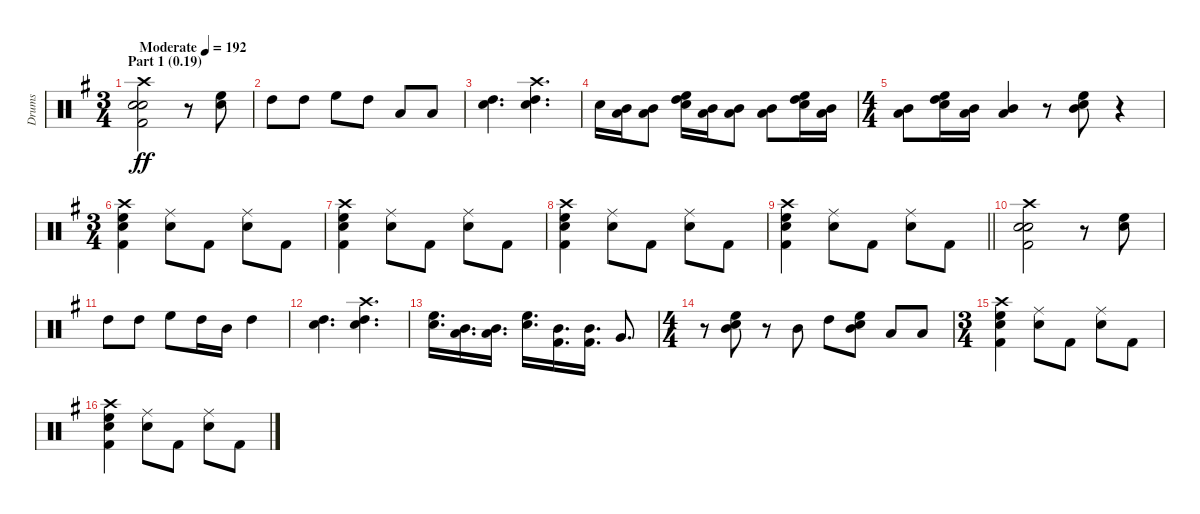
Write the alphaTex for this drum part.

\track ("Drums" "Drums") {instrument percussion}
\staff {score}
\articulation defaults
\ts (3 4)
\section ("" "Part 1 (0.19)")
\tempo (192 "Moderate")
\clef neutral
\ks g
("Kick (hit) 2" "Snare (hit) 2" "Electric Snare (hit)" "Crash high (hit)").2{dy ff} r.8 ("High Floor Tom (hit)" "Electric Snare (hit)").8 |
"High Tom (hit)".8 "High Tom (hit)".8 "High Floor Tom (hit)".8 "High Tom (hit)".8 "Low Tom (hit)".8 "Low Tom (hit)".8 |
("Electric Snare (hit)" "High Tom (hit)").4{d} ("Electric Snare (hit)" "High Tom (hit)" "Crash high (hit)").4{d} |
"Electric Snare (hit)".16 ("Mid Tom (hit)" "Low Tom (hit)").16 ("Mid Tom (hit)" "Low Tom (hit)").8 ("High Floor Tom (hit)" "High Tom (hit)" "Electric Snare (hit)").16 ("Mid Tom (hit)" "Low Tom (hit)").16 ("Mid Tom (hit)" "Low Tom (hit)").8 ("Mid Tom (hit)" "Low Tom (hit)").8 ("High Floor Tom (hit)" "High Tom (hit)" "Electric Snare (hit)").16 ("Mid Tom (hit)" "Low Tom (hit)").16 |
\ts (4 4)
("Mid Tom (hit)" "Low Tom (hit)").8 ("High Floor Tom (hit)" "High Tom (hit)" "Electric Snare (hit)").16 ("Mid Tom (hit)" "Low Tom (hit)").16 ("Mid Tom (hit)" "Low Tom (hit)").4 r.8 ("Mid Tom (hit)" "High Floor Tom (hit)" "Electric Snare (hit)").8 r.4 |
\ts (3 4)
("Kick (hit) 2" "Crash high (hit)" "High Floor Tom (hit)" "Electric Snare (hit)").4 ("Ride (middle)" "Electric Snare (hit)").8 "Kick (hit) 2".8 ("Ride (middle)" "Electric Snare (hit)").8 "Kick (hit) 2".8 |
("Kick (hit) 2" "Crash high (hit)" "High Floor Tom (hit)" "Electric Snare (hit)").4 ("Ride (middle)" "Electric Snare (hit)").8 "Kick (hit) 2".8 ("Ride (middle)" "Electric Snare (hit)").8 "Kick (hit) 2".8 |
("Kick (hit) 2" "Crash high (hit)" "High Floor Tom (hit)" "Electric Snare (hit)").4 ("Ride (middle)" "Electric Snare (hit)").8 "Kick (hit) 2".8 ("Ride (middle)" "Electric Snare (hit)").8 "Kick (hit) 2".8 |
\barLineRight lightlight
("Kick (hit) 2" "Crash high (hit)" "High Floor Tom (hit)" "Electric Snare (hit)").4 ("Ride (middle)" "Electric Snare (hit)").8 "Kick (hit) 2".8 ("Ride (middle)" "Electric Snare (hit)").8 "Kick (hit) 2".8 |
("Kick (hit) 2" "Snare (hit) 2" "Electric Snare (hit)" "Crash high (hit)").2 r.8 ("High Floor Tom (hit)" "Electric Snare (hit)").8 |
"High Tom (hit)".8 "High Tom (hit)".8 "High Floor Tom (hit)".8 "High Tom (hit)".16 "Mid Tom (hit)".16 "High Tom (hit)".4 |
("Electric Snare (hit)" "High Tom (hit)").4{d} ("Electric Snare (hit)" "High Tom (hit)" "Crash high (hit)").4{d} |
("High Floor Tom (hit)" "Electric Snare (hit)").16{d} ("Mid Tom (hit)" "Low Tom (hit)").16{d} ("Mid Tom (hit)" "Low Tom (hit)").16{d} ("High Floor Tom (hit)" "Electric Snare (hit)").16{d} ("Kick (hit) 2" "Mid Tom (hit)").16{d} ("Kick (hit) 2" "Mid Tom (hit)").16{d} "Very Low Tom (hit)".8{d} |
\ts (4 4)
r.8 ("Mid Tom (hit)" "High Floor Tom (hit)" "Electric Snare (hit)").8 r.8 "Mid Tom (hit)".8 "High Tom (hit)".8 ("Mid Tom (hit)" "High Floor Tom (hit)" "Electric Snare (hit)").8 "Low Tom (hit)".8 "Low Tom (hit)".8 |
\ts (3 4)
("Kick (hit) 2" "Crash high (hit)" "High Floor Tom (hit)" "Electric Snare (hit)").4 ("Ride (middle)" "Electric Snare (hit)").8 "Kick (hit) 2".8 ("Ride (middle)" "Electric Snare (hit)").8 "Kick (hit) 2".8 |
("Kick (hit) 2" "Crash high (hit)" "High Floor Tom (hit)" "Electric Snare (hit)").4 ("Ride (middle)" "Electric Snare (hit)").8 "Kick (hit) 2".8 ("Ride (middle)" "Electric Snare (hit)").8 "Kick (hit) 2".8
